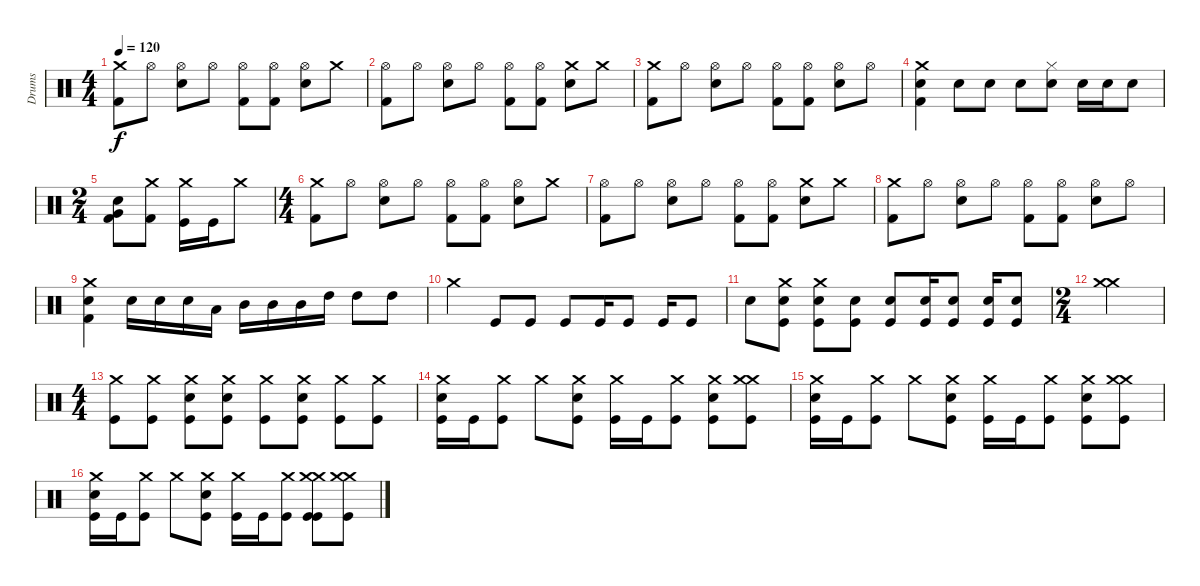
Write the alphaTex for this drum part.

\track ("Drums" "Drums") {instrument percussion}
\staff {score}
\articulation defaults
\ts (4 4)
\tempo 120
\clef neutral
\ks c
("Crash medium (hit)" "Kick (hit) 2").8{dy f} "Hi-Hat (open)".8 ("Hi-Hat (open)" "Snare (hit) 2").8 "Hi-Hat (open)".8 ("Hi-Hat (open)" "Kick (hit) 2").8 ("Hi-Hat (open)" "Kick (hit) 2").8 ("Hi-Hat (open)" "Snare (hit) 2").8 "Crash medium (hit)".8 |
("Hi-Hat (open)" "Kick (hit) 2").8 "Hi-Hat (open)".8 ("Hi-Hat (open)" "Snare (hit) 2").8 "Hi-Hat (open)".8 ("Hi-Hat (open)" "Kick (hit) 2").8 ("Hi-Hat (open)" "Kick (hit) 2").8 ("Crash medium (hit)" "Snare (hit) 2").8 "Crash medium (hit)".8 |
("Crash medium (hit)" "Kick (hit) 2").8 "Hi-Hat (open)".8 ("Hi-Hat (open)" "Snare (hit) 2").8 "Hi-Hat (open)".8 ("Hi-Hat (open)" "Kick (hit) 2").8 ("Hi-Hat (open)" "Kick (hit) 2").8 ("Hi-Hat (open)" "Snare (hit) 2").8 "Hi-Hat (open)".8 |
("Crash medium (hit)" "Snare (hit) 2" "Kick (hit) 2").4 "Snare (hit) 2".8 "Snare (hit) 2".8 "Snare (hit) 2".8 ("Snare (hit) 2" "Hi-Hat (closed)").8 "Snare (hit) 2".16 "Snare (hit) 2".16 "Snare (hit) 2".8 |
\ts (2 4)
("Snare (hit) 2" "Kick (hit) 2" "Very Low Tom (hit)").8 ("Crash medium (hit)" "Kick (hit) 2").8 ("Crash medium (hit)" "Kick (hit)").16 "Kick (hit)".16 "Crash medium (hit)".8 |
\ts (4 4)
("Crash medium (hit)" "Kick (hit) 2").8 "Hi-Hat (open)".8 ("Hi-Hat (open)" "Snare (hit) 2").8 "Hi-Hat (open)".8 ("Hi-Hat (open)" "Kick (hit) 2").8 ("Hi-Hat (open)" "Kick (hit) 2").8 ("Hi-Hat (open)" "Snare (hit) 2").8 "Crash medium (hit)".8 |
("Hi-Hat (open)" "Kick (hit) 2").8 "Hi-Hat (open)".8 ("Hi-Hat (open)" "Snare (hit) 2").8 "Hi-Hat (open)".8 ("Hi-Hat (open)" "Kick (hit) 2").8 ("Hi-Hat (open)" "Kick (hit) 2").8 ("Crash medium (hit)" "Snare (hit) 2").8 "Crash medium (hit)".8 |
("Crash medium (hit)" "Kick (hit) 2").8 "Hi-Hat (open)".8 ("Hi-Hat (open)" "Snare (hit) 2").8 "Hi-Hat (open)".8 ("Hi-Hat (open)" "Kick (hit) 2").8 ("Hi-Hat (open)" "Kick (hit) 2").8 ("Hi-Hat (open)" "Snare (hit) 2").8 "Hi-Hat (open)".8 |
("Crash medium (hit)" "Snare (hit) 2" "Kick (hit) 2").4 "Snare (hit) 2".16 "Snare (hit) 2".16 "Snare (hit) 2".16 "Low Tom (hit)".16 "Mid Tom (hit)".16 "Mid Tom (hit)".16 "Mid Tom (hit)".16 "High Tom (hit)".16 "High Tom (hit)".8 "High Tom (hit)".8 |
"Crash medium (hit)".4 "Kick (hit)".8 "Kick (hit)".8 "Kick (hit)".8 "Kick (hit)".16 "Kick (hit)".8 "Kick (hit)".16 "Kick (hit)".8 |
"Snare (hit) 2".8 ("Crash medium (hit)" "Snare (hit) 2" "Kick (hit)").8 ("Crash medium (hit)" "Snare (hit) 2" "Kick (hit)").8 ("Snare (hit) 2" "Kick (hit)").8 ("Snare (hit) 2" "Kick (hit)").8 ("Snare (hit) 2" "Kick (hit)").16 ("Snare (hit) 2" "Kick (hit)").8 ("Snare (hit) 2" "Kick (hit)").16 ("Snare (hit) 2" "Kick (hit)").8 |
\ts (2 4)
("Crash medium (hit)" "Crash medium (hit)").2 |
\ts (4 4)
("Crash medium (hit)" "Kick (hit)").8 ("Crash medium (hit)" "Kick (hit)").8 ("Crash medium (hit)" "Snare (hit) 2" "Kick (hit)").8 ("Crash medium (hit)" "Snare (hit) 2" "Kick (hit)").8 ("Crash medium (hit)" "Kick (hit)").8 ("Crash medium (hit)" "Snare (hit) 2" "Kick (hit)").8 ("Crash medium (hit)" "Kick (hit)").8 ("Crash medium (hit)" "Kick (hit)").8 |
("Crash medium (hit)" "Snare (hit) 2" "Kick (hit)").16 "Kick (hit)".16 ("Crash medium (hit)" "Kick (hit)").8 "Crash medium (hit)".8 ("Crash medium (hit)" "Snare (hit) 2" "Kick (hit)").8 ("Crash medium (hit)" "Kick (hit)").16 "Kick (hit)".16 ("Crash medium (hit)" "Kick (hit)").8 ("Crash medium (hit)" "Snare (hit) 2" "Kick (hit)").8 ("Crash medium (hit)" "Crash medium (hit)" "Kick (hit)").8 |
("Crash medium (hit)" "Snare (hit) 2" "Kick (hit)").16 "Kick (hit)".16 ("Crash medium (hit)" "Kick (hit)").8 "Crash medium (hit)".8 ("Crash medium (hit)" "Snare (hit) 2" "Kick (hit)").8 ("Crash medium (hit)" "Kick (hit)").16 "Kick (hit)".16 ("Crash medium (hit)" "Kick (hit)").8 ("Crash medium (hit)" "Snare (hit) 2" "Kick (hit)").8 ("Crash medium (hit)" "Crash medium (hit)" "Kick (hit)").8 |
("Crash medium (hit)" "Snare (hit) 2" "Kick (hit)").16 "Kick (hit)".16 ("Crash medium (hit)" "Kick (hit)").8 "Crash medium (hit)".8 ("Crash medium (hit)" "Snare (hit) 2" "Kick (hit)").8 ("Crash medium (hit)" "Kick (hit)").16 "Kick (hit)".16 ("Crash medium (hit)" "Kick (hit)").8 ("Crash medium (hit)" "Crash medium (hit)" "Kick (hit)" "Kick (hit)").8 ("Crash medium (hit)" "Crash medium (hit)" "Kick (hit)").8
